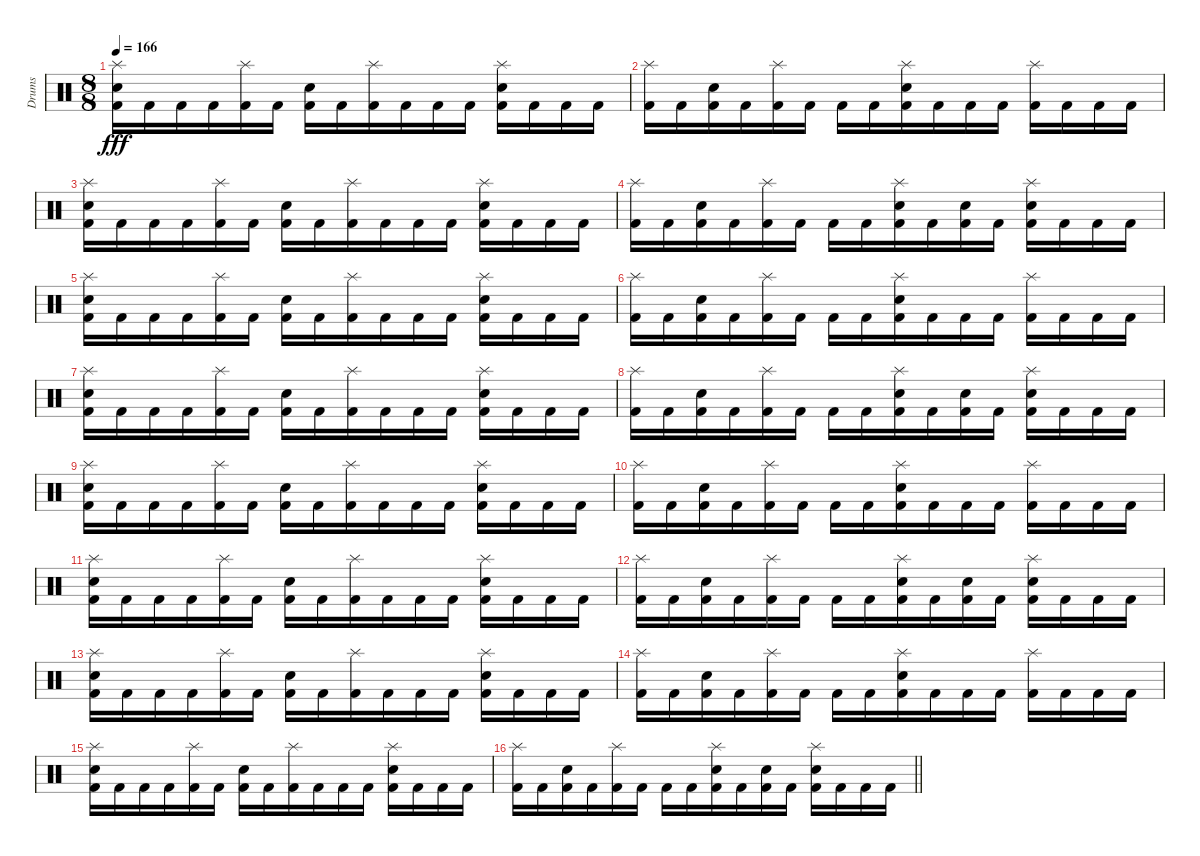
\track ("Drums" "Drums") {instrument percussion}
\staff {score}
\articulation defaults
\ts (8 8)
\section ("" "")
\tempo 166
\clef neutral
\ks c
("Splash (hit)" "Electric Snare (hit)" "Kick (hit) 2").16{dy fff} "Kick (hit) 2".16 "Kick (hit) 2".16 "Kick (hit) 2".16 ("Splash (hit)" "Kick (hit) 2").16 "Kick (hit) 2".16 ("Electric Snare (hit)" "Kick (hit) 2").16 "Kick (hit) 2".16 ("Splash (hit)" "Kick (hit) 2").16 "Kick (hit) 2".16 "Kick (hit) 2".16 "Kick (hit) 2".16 ("Splash (hit)" "Electric Snare (hit)" "Kick (hit) 2").16 "Kick (hit) 2".16 "Kick (hit) 2".16 "Kick (hit) 2".16 |
("Splash (hit)" "Kick (hit) 2").16 "Kick (hit) 2".16 ("Electric Snare (hit)" "Kick (hit) 2").16 "Kick (hit) 2".16 ("Splash (hit)" "Kick (hit) 2").16 "Kick (hit) 2".16 "Kick (hit) 2".16 "Kick (hit) 2".16 ("Splash (hit)" "Electric Snare (hit)" "Kick (hit) 2").16 "Kick (hit) 2".16 "Kick (hit) 2".16 "Kick (hit) 2".16 ("Splash (hit)" "Kick (hit) 2").16 "Kick (hit) 2".16 "Kick (hit) 2".16 "Kick (hit) 2".16 |
("Splash (hit)" "Electric Snare (hit)" "Kick (hit) 2").16 "Kick (hit) 2".16 "Kick (hit) 2".16 "Kick (hit) 2".16 ("Splash (hit)" "Kick (hit) 2").16 "Kick (hit) 2".16 ("Electric Snare (hit)" "Kick (hit) 2").16 "Kick (hit) 2".16 ("Splash (hit)" "Kick (hit) 2").16 "Kick (hit) 2".16 "Kick (hit) 2".16 "Kick (hit) 2".16 ("Splash (hit)" "Electric Snare (hit)" "Kick (hit) 2").16 "Kick (hit) 2".16 "Kick (hit) 2".16 "Kick (hit) 2".16 |
("Splash (hit)" "Kick (hit) 2").16 "Kick (hit) 2".16 ("Electric Snare (hit)" "Kick (hit) 2").16 "Kick (hit) 2".16 ("Splash (hit)" "Kick (hit) 2").16 "Kick (hit) 2".16 "Kick (hit) 2".16 "Kick (hit) 2".16 ("Splash (hit)" "Electric Snare (hit)" "Kick (hit) 2").16 "Kick (hit) 2".16 ("Electric Snare (hit)" "Kick (hit) 2").16 "Kick (hit) 2".16 ("Splash (hit)" "Electric Snare (hit)" "Kick (hit) 2").16 "Kick (hit) 2".16 "Kick (hit) 2".16 "Kick (hit) 2".16 |
("Splash (hit)" "Electric Snare (hit)" "Kick (hit) 2").16 "Kick (hit) 2".16 "Kick (hit) 2".16 "Kick (hit) 2".16 ("Splash (hit)" "Kick (hit) 2").16 "Kick (hit) 2".16 ("Electric Snare (hit)" "Kick (hit) 2").16 "Kick (hit) 2".16 ("Splash (hit)" "Kick (hit) 2").16 "Kick (hit) 2".16 "Kick (hit) 2".16 "Kick (hit) 2".16 ("Splash (hit)" "Electric Snare (hit)" "Kick (hit) 2").16 "Kick (hit) 2".16 "Kick (hit) 2".16 "Kick (hit) 2".16 |
("Splash (hit)" "Kick (hit) 2").16 "Kick (hit) 2".16 ("Electric Snare (hit)" "Kick (hit) 2").16 "Kick (hit) 2".16 ("Splash (hit)" "Kick (hit) 2").16 "Kick (hit) 2".16 "Kick (hit) 2".16 "Kick (hit) 2".16 ("Splash (hit)" "Electric Snare (hit)" "Kick (hit) 2").16 "Kick (hit) 2".16 "Kick (hit) 2".16 "Kick (hit) 2".16 ("Splash (hit)" "Kick (hit) 2").16 "Kick (hit) 2".16 "Kick (hit) 2".16 "Kick (hit) 2".16 |
("Splash (hit)" "Electric Snare (hit)" "Kick (hit) 2").16 "Kick (hit) 2".16 "Kick (hit) 2".16 "Kick (hit) 2".16 ("Splash (hit)" "Kick (hit) 2").16 "Kick (hit) 2".16 ("Electric Snare (hit)" "Kick (hit) 2").16 "Kick (hit) 2".16 ("Splash (hit)" "Kick (hit) 2").16 "Kick (hit) 2".16 "Kick (hit) 2".16 "Kick (hit) 2".16 ("Splash (hit)" "Electric Snare (hit)" "Kick (hit) 2").16 "Kick (hit) 2".16 "Kick (hit) 2".16 "Kick (hit) 2".16 |
("Splash (hit)" "Kick (hit) 2").16 "Kick (hit) 2".16 ("Electric Snare (hit)" "Kick (hit) 2").16 "Kick (hit) 2".16 ("Splash (hit)" "Kick (hit) 2").16 "Kick (hit) 2".16 "Kick (hit) 2".16 "Kick (hit) 2".16 ("Splash (hit)" "Electric Snare (hit)" "Kick (hit) 2").16 "Kick (hit) 2".16 ("Electric Snare (hit)" "Kick (hit) 2").16 "Kick (hit) 2".16 ("Splash (hit)" "Electric Snare (hit)" "Kick (hit) 2").16 "Kick (hit) 2".16 "Kick (hit) 2".16 "Kick (hit) 2".16 |
("Splash (hit)" "Electric Snare (hit)" "Kick (hit) 2").16 "Kick (hit) 2".16 "Kick (hit) 2".16 "Kick (hit) 2".16 ("Splash (hit)" "Kick (hit) 2").16 "Kick (hit) 2".16 ("Electric Snare (hit)" "Kick (hit) 2").16 "Kick (hit) 2".16 ("Splash (hit)" "Kick (hit) 2").16 "Kick (hit) 2".16 "Kick (hit) 2".16 "Kick (hit) 2".16 ("Splash (hit)" "Electric Snare (hit)" "Kick (hit) 2").16 "Kick (hit) 2".16 "Kick (hit) 2".16 "Kick (hit) 2".16 |
("Splash (hit)" "Kick (hit) 2").16 "Kick (hit) 2".16 ("Electric Snare (hit)" "Kick (hit) 2").16 "Kick (hit) 2".16 ("Splash (hit)" "Kick (hit) 2").16 "Kick (hit) 2".16 "Kick (hit) 2".16 "Kick (hit) 2".16 ("Splash (hit)" "Electric Snare (hit)" "Kick (hit) 2").16 "Kick (hit) 2".16 "Kick (hit) 2".16 "Kick (hit) 2".16 ("Splash (hit)" "Kick (hit) 2").16 "Kick (hit) 2".16 "Kick (hit) 2".16 "Kick (hit) 2".16 |
("Splash (hit)" "Electric Snare (hit)" "Kick (hit) 2").16 "Kick (hit) 2".16 "Kick (hit) 2".16 "Kick (hit) 2".16 ("Splash (hit)" "Kick (hit) 2").16 "Kick (hit) 2".16 ("Electric Snare (hit)" "Kick (hit) 2").16 "Kick (hit) 2".16 ("Splash (hit)" "Kick (hit) 2").16 "Kick (hit) 2".16 "Kick (hit) 2".16 "Kick (hit) 2".16 ("Splash (hit)" "Electric Snare (hit)" "Kick (hit) 2").16 "Kick (hit) 2".16 "Kick (hit) 2".16 "Kick (hit) 2".16 |
("Splash (hit)" "Kick (hit) 2").16 "Kick (hit) 2".16 ("Electric Snare (hit)" "Kick (hit) 2").16 "Kick (hit) 2".16 ("Splash (hit)" "Kick (hit) 2").16 "Kick (hit) 2".16 "Kick (hit) 2".16 "Kick (hit) 2".16 ("Splash (hit)" "Electric Snare (hit)" "Kick (hit) 2").16 "Kick (hit) 2".16 ("Electric Snare (hit)" "Kick (hit) 2").16 "Kick (hit) 2".16 ("Splash (hit)" "Electric Snare (hit)" "Kick (hit) 2").16 "Kick (hit) 2".16 "Kick (hit) 2".16 "Kick (hit) 2".16 |
("Splash (hit)" "Electric Snare (hit)" "Kick (hit) 2").16 "Kick (hit) 2".16 "Kick (hit) 2".16 "Kick (hit) 2".16 ("Splash (hit)" "Kick (hit) 2").16 "Kick (hit) 2".16 ("Electric Snare (hit)" "Kick (hit) 2").16 "Kick (hit) 2".16 ("Splash (hit)" "Kick (hit) 2").16 "Kick (hit) 2".16 "Kick (hit) 2".16 "Kick (hit) 2".16 ("Splash (hit)" "Electric Snare (hit)" "Kick (hit) 2").16 "Kick (hit) 2".16 "Kick (hit) 2".16 "Kick (hit) 2".16 |
("Splash (hit)" "Kick (hit) 2").16 "Kick (hit) 2".16 ("Electric Snare (hit)" "Kick (hit) 2").16 "Kick (hit) 2".16 ("Splash (hit)" "Kick (hit) 2").16 "Kick (hit) 2".16 "Kick (hit) 2".16 "Kick (hit) 2".16 ("Splash (hit)" "Electric Snare (hit)" "Kick (hit) 2").16 "Kick (hit) 2".16 "Kick (hit) 2".16 "Kick (hit) 2".16 ("Splash (hit)" "Kick (hit) 2").16 "Kick (hit) 2".16 "Kick (hit) 2".16 "Kick (hit) 2".16 |
("Splash (hit)" "Electric Snare (hit)" "Kick (hit) 2").16 "Kick (hit) 2".16 "Kick (hit) 2".16 "Kick (hit) 2".16 ("Splash (hit)" "Kick (hit) 2").16 "Kick (hit) 2".16 ("Electric Snare (hit)" "Kick (hit) 2").16 "Kick (hit) 2".16 ("Splash (hit)" "Kick (hit) 2").16 "Kick (hit) 2".16 "Kick (hit) 2".16 "Kick (hit) 2".16 ("Splash (hit)" "Electric Snare (hit)" "Kick (hit) 2").16 "Kick (hit) 2".16 "Kick (hit) 2".16 "Kick (hit) 2".16 |
\barLineRight lightlight
("Splash (hit)" "Kick (hit) 2").16 "Kick (hit) 2".16 ("Electric Snare (hit)" "Kick (hit) 2").16 "Kick (hit) 2".16 ("Splash (hit)" "Kick (hit) 2").16 "Kick (hit) 2".16 "Kick (hit) 2".16 "Kick (hit) 2".16 ("Splash (hit)" "Electric Snare (hit)" "Kick (hit) 2").16 "Kick (hit) 2".16 ("Electric Snare (hit)" "Kick (hit) 2").16 "Kick (hit) 2".16 ("Splash (hit)" "Electric Snare (hit)" "Kick (hit) 2").16 "Kick (hit) 2".16 "Kick (hit) 2".16 "Kick (hit) 2".16
